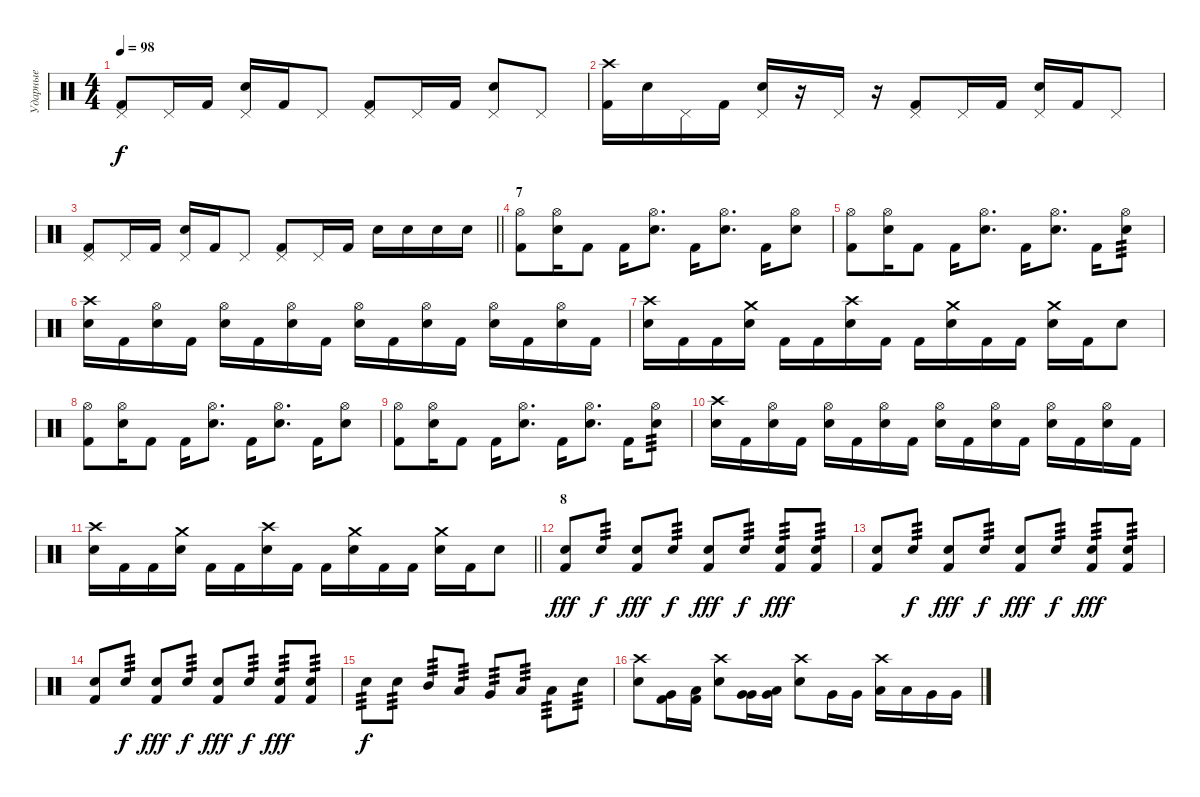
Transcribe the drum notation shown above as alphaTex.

\track ("Ударные" "Ударные") {instrument percussion}
\staff {score}
\articulation defaults
\ts (4 4)
\tempo 98
\clef neutral
\ks c
("Kick (hit) 2" "Pedal Hi-Hat (hit)").8{dy f} "Pedal Hi-Hat (hit)".16 "Kick (hit) 2".16 ("Electric Snare (hit)" "Pedal Hi-Hat (hit)").16 "Kick (hit) 2".16 "Pedal Hi-Hat (hit)".8 ("Kick (hit) 2" "Pedal Hi-Hat (hit)").8 "Pedal Hi-Hat (hit)".16 "Kick (hit) 2".16 ("Electric Snare (hit)" "Pedal Hi-Hat (hit)").8 "Pedal Hi-Hat (hit)".8 |
("Kick (hit) 2" "Crash high (hit)").16 "Electric Snare (hit)".16 "Pedal Hi-Hat (hit)".16 "Kick (hit) 2".16 ("Electric Snare (hit)" "Pedal Hi-Hat (hit)").16 r.16 "Pedal Hi-Hat (hit)".16 r.16 ("Kick (hit) 2" "Pedal Hi-Hat (hit)").8 "Pedal Hi-Hat (hit)".16 "Kick (hit) 2".16 ("Electric Snare (hit)" "Pedal Hi-Hat (hit)").16 "Kick (hit) 2".16 "Pedal Hi-Hat (hit)".8 |
\barLineRight lightlight
("Kick (hit) 2" "Pedal Hi-Hat (hit)").8 "Pedal Hi-Hat (hit)".16 "Kick (hit) 2".16 ("Electric Snare (hit)" "Pedal Hi-Hat (hit)").16 "Kick (hit) 2".16 "Pedal Hi-Hat (hit)".8 ("Kick (hit) 2" "Pedal Hi-Hat (hit)").8 "Pedal Hi-Hat (hit)".16 "Kick (hit) 2".16 "Electric Snare (hit)".16 "Electric Snare (hit)".16 "Electric Snare (hit)".16 "Electric Snare (hit)".16 |
\section ("" "7")
("Kick (hit) 2" "Hi-Hat (open)").8 ("Electric Snare (hit)" "Hi-Hat (open)").16 "Kick (hit) 2".8 "Kick (hit) 2".16 ("Electric Snare (hit)" "Hi-Hat (open)").8{d} "Kick (hit) 2".16 ("Electric Snare (hit)" "Hi-Hat (open)").8{d} "Kick (hit) 2".16 ("Electric Snare (hit)" "Hi-Hat (open)").8 |
("Kick (hit) 2" "Hi-Hat (open)").8 ("Electric Snare (hit)" "Hi-Hat (open)").16 "Kick (hit) 2".8 "Kick (hit) 2".16 ("Electric Snare (hit)" "Hi-Hat (open)").8{d} "Kick (hit) 2".16 ("Electric Snare (hit)" "Hi-Hat (open)").8{d} "Kick (hit) 2".16 ("Electric Snare (hit)" "Hi-Hat (open)").8{tp 3} |
("Electric Snare (hit)" "Crash high (hit)").16 "Kick (hit) 2".16 ("Electric Snare (hit)" "Hi-Hat (open)").16 "Kick (hit) 2".16 ("Electric Snare (hit)" "Hi-Hat (open)").16 "Kick (hit) 2".16 ("Electric Snare (hit)" "Hi-Hat (open)").16 "Kick (hit) 2".16 ("Electric Snare (hit)" "Hi-Hat (open)").16 "Kick (hit) 2".16 ("Electric Snare (hit)" "Hi-Hat (open)").16 "Kick (hit) 2".16 ("Electric Snare (hit)" "Hi-Hat (open)").16 "Kick (hit) 2".16 ("Electric Snare (hit)" "Hi-Hat (open)").16 "Kick (hit) 2".16 |
("Electric Snare (hit)" "Crash high (hit)").16 "Kick (hit) 2".16 "Kick (hit) 2".16 ("Electric Snare (hit)" "Crash medium (hit)").16 "Kick (hit) 2".16 "Kick (hit) 2".16 ("Electric Snare (hit)" "Crash high (hit)").16 "Kick (hit) 2".16 "Kick (hit) 2".16 ("Electric Snare (hit)" "Crash medium (hit)").16 "Kick (hit) 2".16 "Kick (hit) 2".16 ("Electric Snare (hit)" "Crash medium (hit)").16 "Kick (hit) 2".16 "Electric Snare (hit)".8 |
("Kick (hit) 2" "Hi-Hat (open)").8 ("Electric Snare (hit)" "Hi-Hat (open)").16 "Kick (hit) 2".8 "Kick (hit) 2".16 ("Electric Snare (hit)" "Hi-Hat (open)").8{d} "Kick (hit) 2".16 ("Electric Snare (hit)" "Hi-Hat (open)").8{d} "Kick (hit) 2".16 ("Electric Snare (hit)" "Hi-Hat (open)").8 |
("Kick (hit) 2" "Hi-Hat (open)").8 ("Electric Snare (hit)" "Hi-Hat (open)").16 "Kick (hit) 2".8 "Kick (hit) 2".16 ("Electric Snare (hit)" "Hi-Hat (open)").8{d} "Kick (hit) 2".16 ("Electric Snare (hit)" "Hi-Hat (open)").8{d} "Kick (hit) 2".16 ("Electric Snare (hit)" "Hi-Hat (open)").8{tp 3} |
("Electric Snare (hit)" "Crash high (hit)").16 "Kick (hit) 2".16 ("Electric Snare (hit)" "Hi-Hat (open)").16 "Kick (hit) 2".16 ("Electric Snare (hit)" "Hi-Hat (open)").16 "Kick (hit) 2".16 ("Electric Snare (hit)" "Hi-Hat (open)").16 "Kick (hit) 2".16 ("Electric Snare (hit)" "Hi-Hat (open)").16 "Kick (hit) 2".16 ("Electric Snare (hit)" "Hi-Hat (open)").16 "Kick (hit) 2".16 ("Electric Snare (hit)" "Hi-Hat (open)").16 "Kick (hit) 2".16 ("Electric Snare (hit)" "Hi-Hat (open)").16 "Kick (hit) 2".16 |
\barLineRight lightlight
("Electric Snare (hit)" "Crash high (hit)").16 "Kick (hit) 2".16 "Kick (hit) 2".16 ("Electric Snare (hit)" "Crash medium (hit)").16 "Kick (hit) 2".16 "Kick (hit) 2".16 ("Electric Snare (hit)" "Crash high (hit)").16 "Kick (hit) 2".16 "Kick (hit) 2".16 ("Electric Snare (hit)" "Crash medium (hit)").16 "Kick (hit) 2".16 "Kick (hit) 2".16 ("Electric Snare (hit)" "Crash medium (hit)").16 "Kick (hit) 2".16 "Electric Snare (hit)".8 |
\section ("" "8")
("Electric Snare (hit)" "Kick (hit) 2").8{dy fff} "Electric Snare (hit)".8{tp 3 dy f} ("Electric Snare (hit)" "Kick (hit) 2").8{dy fff} "Electric Snare (hit)".8{tp 3 dy f} ("Electric Snare (hit)" "Kick (hit) 2").8{dy fff} "Electric Snare (hit)".8{tp 3 dy f} ("Electric Snare (hit)" "Kick (hit) 2").8{tp 3 dy fff} ("Electric Snare (hit)" "Kick (hit) 2").8{tp 3} |
("Electric Snare (hit)" "Kick (hit) 2").8 "Electric Snare (hit)".8{tp 3 dy f} ("Electric Snare (hit)" "Kick (hit) 2").8{dy fff} "Electric Snare (hit)".8{tp 3 dy f} ("Electric Snare (hit)" "Kick (hit) 2").8{dy fff} "Electric Snare (hit)".8{tp 3 dy f} ("Electric Snare (hit)" "Kick (hit) 2").8{tp 3 dy fff} ("Electric Snare (hit)" "Kick (hit) 2").8{tp 3} |
("Electric Snare (hit)" "Kick (hit) 2").8 "Electric Snare (hit)".8{tp 3 dy f} ("Electric Snare (hit)" "Kick (hit) 2").8{dy fff} "Electric Snare (hit)".8{tp 3 dy f} ("Electric Snare (hit)" "Kick (hit) 2").8{dy fff} "Electric Snare (hit)".8{tp 3 dy f} ("Electric Snare (hit)" "Kick (hit) 2").8{tp 3 dy fff} ("Electric Snare (hit)" "Kick (hit) 2").8{tp 3} |
"Electric Snare (hit)".8{tp 3 dy f} "Electric Snare (hit)".8{tp 3} "Mid Tom (hit)".8{tp 3} "Low Tom (hit)".8{tp 3} "Very Low Tom (hit)".8{tp 3} "Low Floor Tom (hit)".8{tp 3} "Low Floor Tom (hit)".8{tp 3} "Electric Snare (hit)".8{tp 3} |
("Electric Snare (hit)" "Crash high (hit)").8 ("Kick (hit) 2" "Very Low Tom (hit)").16 ("Kick (hit) 2" "Low Floor Tom (hit)").16 ("Electric Snare (hit)" "Crash high (hit)").8 ("Very Low Tom (hit)" "Very Low Tom (hit)").16 ("Very Low Tom (hit)" "Low Floor Tom (hit)").16 ("Electric Snare (hit)" "Crash high (hit)").8 "Very Low Tom (hit)".16 "Very Low Tom (hit)".16 ("Low Tom (hit)" "Crash high (hit)").16 "Low Tom (hit)".16 "Very Low Tom (hit)".16 "Very Low Tom (hit)".16
